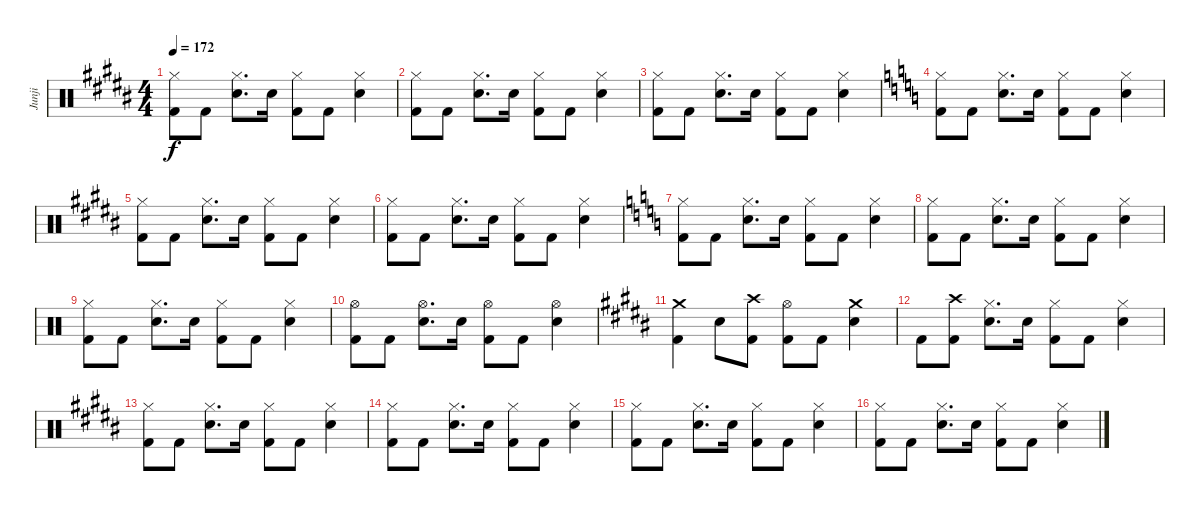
\track ("Junji" "Junji") {instrument percussion}
\staff {score}
\articulation defaults
\ts (4 4)
\tempo 172
\clef neutral
\ks b
("Hi-Hat (closed)" "Kick (hit) 2").8{dy f} "Kick (hit) 2".8 ("Hi-Hat (closed)" "Snare (hit) 2").8{d} "Snare (hit) 2".16 ("Hi-Hat (closed)" "Kick (hit) 2").8 "Kick (hit) 2".8 ("Hi-Hat (closed)" "Snare (hit) 2").4 |
("Hi-Hat (closed)" "Kick (hit) 2").8 "Kick (hit) 2".8 ("Hi-Hat (closed)" "Snare (hit) 2").8{d} "Snare (hit) 2".16 ("Hi-Hat (closed)" "Kick (hit) 2").8 "Kick (hit) 2".8 ("Hi-Hat (closed)" "Snare (hit) 2").4 |
("Hi-Hat (closed)" "Kick (hit) 2").8 "Kick (hit) 2".8 ("Hi-Hat (closed)" "Snare (hit) 2").8{d} "Snare (hit) 2".16 ("Hi-Hat (closed)" "Kick (hit) 2").8 "Kick (hit) 2".8 ("Hi-Hat (closed)" "Snare (hit) 2").4 |
\ks c
("Hi-Hat (closed)" "Kick (hit) 2").8 "Kick (hit) 2".8 ("Hi-Hat (closed)" "Snare (hit) 2").8{d} "Snare (hit) 2".16 ("Hi-Hat (closed)" "Kick (hit) 2").8 "Kick (hit) 2".8 ("Hi-Hat (closed)" "Snare (hit) 2").4 |
\ks b
("Hi-Hat (closed)" "Kick (hit) 2").8 "Kick (hit) 2".8 ("Hi-Hat (closed)" "Snare (hit) 2").8{d} "Snare (hit) 2".16 ("Hi-Hat (closed)" "Kick (hit) 2").8 "Kick (hit) 2".8 ("Hi-Hat (closed)" "Snare (hit) 2").4 |
("Hi-Hat (closed)" "Kick (hit) 2").8 "Kick (hit) 2".8 ("Hi-Hat (closed)" "Snare (hit) 2").8{d} "Snare (hit) 2".16 ("Hi-Hat (closed)" "Kick (hit) 2").8 "Kick (hit) 2".8 ("Hi-Hat (closed)" "Snare (hit) 2").4 |
\ks c
("Hi-Hat (closed)" "Kick (hit) 2").8 "Kick (hit) 2".8 ("Hi-Hat (closed)" "Snare (hit) 2").8{d} "Snare (hit) 2".16 ("Hi-Hat (closed)" "Kick (hit) 2").8 "Kick (hit) 2".8 ("Hi-Hat (closed)" "Snare (hit) 2").4 |
("Hi-Hat (closed)" "Kick (hit) 2").8 "Kick (hit) 2".8 ("Hi-Hat (closed)" "Snare (hit) 2").8{d} "Snare (hit) 2".16 ("Hi-Hat (closed)" "Kick (hit) 2").8 "Kick (hit) 2".8 ("Hi-Hat (closed)" "Snare (hit) 2").4 |
("Hi-Hat (closed)" "Kick (hit) 2").8 "Kick (hit) 2".8 ("Hi-Hat (closed)" "Snare (hit) 2").8{d} "Snare (hit) 2".16 ("Hi-Hat (closed)" "Kick (hit) 2").8 "Kick (hit) 2".8 ("Hi-Hat (closed)" "Snare (hit) 2").4 |
("Hi-Hat (open)" "Kick (hit) 2").8 "Kick (hit) 2".8 ("Hi-Hat (open)" "Snare (hit) 2").8{d} "Snare (hit) 2".16 ("Hi-Hat (open)" "Kick (hit) 2").8 "Kick (hit) 2".8 ("Hi-Hat (open)" "Snare (hit) 2").4 |
\ks b
("Crash medium (hit)" "Kick (hit) 2").4 "Snare (hit) 2".8 ("Crash high (hit)" "Kick (hit) 2").8 ("Hi-Hat (open)" "Kick (hit) 2").8 "Kick (hit) 2".8 ("Crash medium (hit)" "Snare (hit) 2").4 |
"Kick (hit) 2".8 ("Crash high (hit)" "Kick (hit) 2").8 ("Hi-Hat (closed)" "Snare (hit) 2").8{d} "Snare (hit) 2".16 ("Hi-Hat (closed)" "Kick (hit) 2").8 "Kick (hit) 2".8 ("Hi-Hat (closed)" "Snare (hit) 2").4 |
("Hi-Hat (closed)" "Kick (hit) 2").8 "Kick (hit) 2".8 ("Hi-Hat (closed)" "Snare (hit) 2").8{d} "Snare (hit) 2".16 ("Hi-Hat (closed)" "Kick (hit) 2").8 "Kick (hit) 2".8 ("Hi-Hat (closed)" "Snare (hit) 2").4 |
("Hi-Hat (closed)" "Kick (hit) 2").8 "Kick (hit) 2".8 ("Hi-Hat (closed)" "Snare (hit) 2").8{d} "Snare (hit) 2".16 ("Hi-Hat (closed)" "Kick (hit) 2").8 "Kick (hit) 2".8 ("Hi-Hat (closed)" "Snare (hit) 2").4 |
("Hi-Hat (closed)" "Kick (hit) 2").8 "Kick (hit) 2".8 ("Hi-Hat (closed)" "Snare (hit) 2").8{d} "Snare (hit) 2".16 ("Hi-Hat (closed)" "Kick (hit) 2").8 "Kick (hit) 2".8 ("Hi-Hat (closed)" "Snare (hit) 2").4 |
("Hi-Hat (closed)" "Kick (hit) 2").8 "Kick (hit) 2".8 ("Hi-Hat (closed)" "Snare (hit) 2").8{d} "Snare (hit) 2".16 ("Hi-Hat (closed)" "Kick (hit) 2").8 "Kick (hit) 2".8 ("Hi-Hat (closed)" "Snare (hit) 2").4
